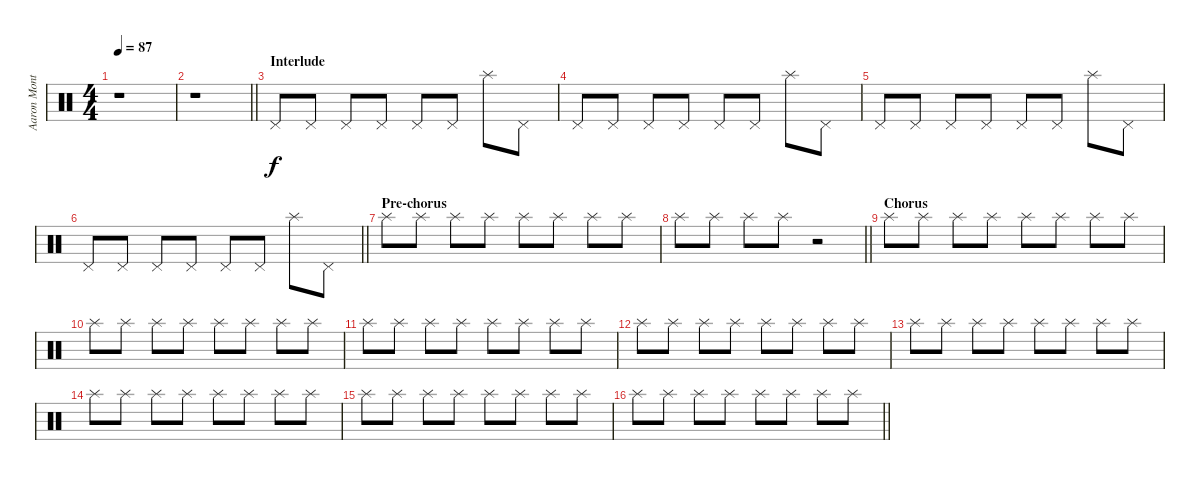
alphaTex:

\track ("Aaron Montgomery (Drums)" "Aaron Mont") {instrument percussion}
\staff {score}
\articulation defaults
\ts (4 4)
\tempo 87
\clef neutral
\ks c
r.1{dy f} |
\barLineRight lightlight
r.1 |
\section ("" "Interlude")
"Pedal Hi-Hat (hit)".8 "Pedal Hi-Hat (hit)".8 "Pedal Hi-Hat (hit)".8 "Pedal Hi-Hat (hit)".8 "Pedal Hi-Hat (hit)".8 "Pedal Hi-Hat (hit)".8 "Splash (hit)".8 "Pedal Hi-Hat (hit)".8 |
"Pedal Hi-Hat (hit)".8 "Pedal Hi-Hat (hit)".8 "Pedal Hi-Hat (hit)".8 "Pedal Hi-Hat (hit)".8 "Pedal Hi-Hat (hit)".8 "Pedal Hi-Hat (hit)".8 "Splash (hit)".8 "Pedal Hi-Hat (hit)".8 |
"Pedal Hi-Hat (hit)".8 "Pedal Hi-Hat (hit)".8 "Pedal Hi-Hat (hit)".8 "Pedal Hi-Hat (hit)".8 "Pedal Hi-Hat (hit)".8 "Pedal Hi-Hat (hit)".8 "Splash (hit)".8 "Pedal Hi-Hat (hit)".8 |
\barLineRight lightlight "Pedal Hi-Hat (hit)".8 "Pedal Hi-Hat (hit)".8 "Pedal Hi-Hat (hit)".8 "Pedal Hi-Hat (hit)".8 "Pedal Hi-Hat (hit)".8 "Pedal Hi-Hat (hit)".8 "Splash (hit)".8 "Pedal Hi-Hat (hit)".8
|
\section ("" "Pre-chorus")
"Splash (hit)".8 "Splash (hit)".8 "Splash (hit)".8 "Splash (hit)".8 "Splash (hit)".8 "Splash (hit)".8 "Splash (hit)".8 "Splash (hit)".8 |
\barLineRight lightlight "Splash (hit)".8 "Splash (hit)".8 "Splash (hit)".8 "Splash (hit)".8
r.2 |
\section ("" "Chorus")
"Splash (hit)".8 "Splash (hit)".8 "Splash (hit)".8 "Splash (hit)".8 "Splash (hit)".8 "Splash (hit)".8 "Splash (hit)".8 "Splash (hit)".8 |
"Splash (hit)".8 "Splash (hit)".8 "Splash (hit)".8 "Splash (hit)".8 "Splash (hit)".8 "Splash (hit)".8 "Splash (hit)".8 "Splash (hit)".8 |
"Splash (hit)".8 "Splash (hit)".8 "Splash (hit)".8 "Splash (hit)".8 "Splash (hit)".8 "Splash (hit)".8 "Splash (hit)".8 "Splash (hit)".8 |
"Splash (hit)".8 "Splash (hit)".8 "Splash (hit)".8 "Splash (hit)".8 "Splash (hit)".8 "Splash (hit)".8 "Splash (hit)".8 "Splash (hit)".8 |
"Splash (hit)".8 "Splash (hit)".8 "Splash (hit)".8 "Splash (hit)".8 "Splash (hit)".8 "Splash (hit)".8 "Splash (hit)".8 "Splash (hit)".8 |
"Splash (hit)".8 "Splash (hit)".8 "Splash (hit)".8 "Splash (hit)".8 "Splash (hit)".8 "Splash (hit)".8 "Splash (hit)".8 "Splash (hit)".8 |
"Splash (hit)".8 "Splash (hit)".8 "Splash (hit)".8 "Splash (hit)".8 "Splash (hit)".8 "Splash (hit)".8 "Splash (hit)".8 "Splash (hit)".8 |
\barLineRight lightlight "Splash (hit)".8 "Splash (hit)".8 "Splash (hit)".8 "Splash (hit)".8 "Splash (hit)".8 "Splash (hit)".8 "Splash (hit)".8 "Splash (hit)".8
